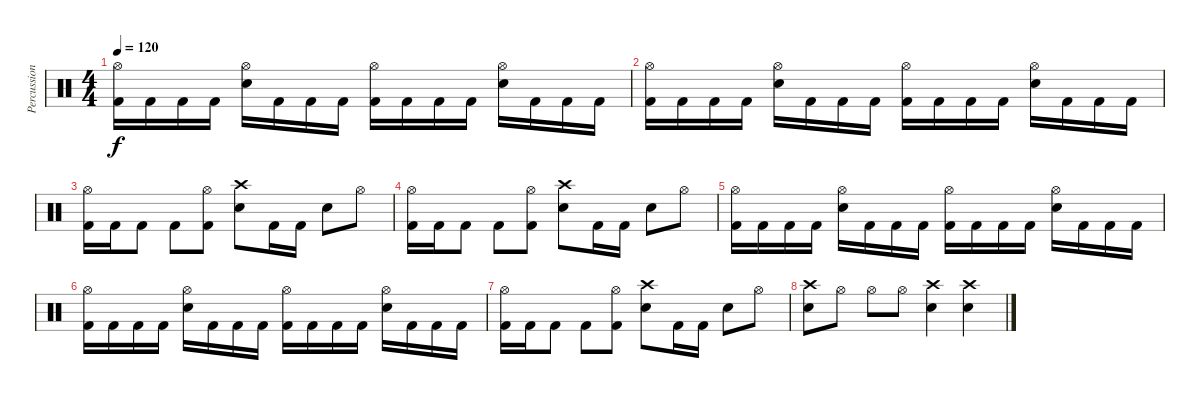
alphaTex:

\track ("Percussions" "Percussion") {instrument percussion}
\staff {score}
\articulation defaults
\ts (4 4)
\tempo 120
\clef neutral
\ks c
("Hi-Hat (open)" "Kick (hit) 2").16{dy f} "Kick (hit) 2".16 "Kick (hit) 2".16 "Kick (hit) 2".16 ("Hi-Hat (open)" "Electric Snare (hit)").16 "Kick (hit) 2".16 "Kick (hit) 2".16 "Kick (hit) 2".16 ("Hi-Hat (open)" "Kick (hit) 2").16 "Kick (hit) 2".16 "Kick (hit) 2".16 "Kick (hit) 2".16 ("Hi-Hat (open)" "Electric Snare (hit)").16 "Kick (hit) 2".16 "Kick (hit) 2".16 "Kick (hit) 2".16 |
("Hi-Hat (open)" "Kick (hit) 2").16 "Kick (hit) 2".16 "Kick (hit) 2".16 "Kick (hit) 2".16 ("Hi-Hat (open)" "Electric Snare (hit)").16 "Kick (hit) 2".16 "Kick (hit) 2".16 "Kick (hit) 2".16 ("Hi-Hat (open)" "Kick (hit) 2").16 "Kick (hit) 2".16 "Kick (hit) 2".16 "Kick (hit) 2".16 ("Hi-Hat (open)" "Electric Snare (hit)").16 "Kick (hit) 2".16 "Kick (hit) 2".16 "Kick (hit) 2".16 |
("Hi-Hat (open)" "Kick (hit) 2").16 "Kick (hit) 2".16 "Kick (hit) 2".8 "Kick (hit) 2".8 ("Hi-Hat (open)" "Kick (hit) 2").8 ("Crash high (hit)" "Electric Snare (hit)").8 "Kick (hit) 2".16 "Kick (hit) 2".16 "Electric Snare (hit)".8 "Hi-Hat (open)".8 |
("Hi-Hat (open)" "Kick (hit) 2").16 "Kick (hit) 2".16 "Kick (hit) 2".8 "Kick (hit) 2".8 ("Hi-Hat (open)" "Kick (hit) 2").8 ("Crash high (hit)" "Electric Snare (hit)").8 "Kick (hit) 2".16 "Kick (hit) 2".16 "Electric Snare (hit)".8 "Hi-Hat (open)".8 |
("Hi-Hat (open)" "Kick (hit) 2").16 "Kick (hit) 2".16 "Kick (hit) 2".16 "Kick (hit) 2".16 ("Hi-Hat (open)" "Electric Snare (hit)").16 "Kick (hit) 2".16 "Kick (hit) 2".16 "Kick (hit) 2".16 ("Hi-Hat (open)" "Kick (hit) 2").16 "Kick (hit) 2".16 "Kick (hit) 2".16 "Kick (hit) 2".16 ("Hi-Hat (open)" "Electric Snare (hit)").16 "Kick (hit) 2".16 "Kick (hit) 2".16 "Kick (hit) 2".16 |
("Hi-Hat (open)" "Kick (hit) 2").16 "Kick (hit) 2".16 "Kick (hit) 2".16 "Kick (hit) 2".16 ("Hi-Hat (open)" "Electric Snare (hit)").16 "Kick (hit) 2".16 "Kick (hit) 2".16 "Kick (hit) 2".16 ("Hi-Hat (open)" "Kick (hit) 2").16 "Kick (hit) 2".16 "Kick (hit) 2".16 "Kick (hit) 2".16 ("Hi-Hat (open)" "Electric Snare (hit)").16 "Kick (hit) 2".16 "Kick (hit) 2".16 "Kick (hit) 2".16 |
("Hi-Hat (open)" "Kick (hit) 2").16 "Kick (hit) 2".16 "Kick (hit) 2".8 "Kick (hit) 2".8 ("Hi-Hat (open)" "Kick (hit) 2").8 ("Crash high (hit)" "Electric Snare (hit)").8 "Kick (hit) 2".16 "Kick (hit) 2".16 "Electric Snare (hit)".8 "Hi-Hat (open)".8 |
("Crash high (hit)" "Electric Snare (hit)").8 "Hi-Hat (open)".8 "Hi-Hat (open)".8 "Hi-Hat (open)".8 ("Crash high (hit)" "Electric Snare (hit)").4 ("Crash high (hit)" "Electric Snare (hit)").4
